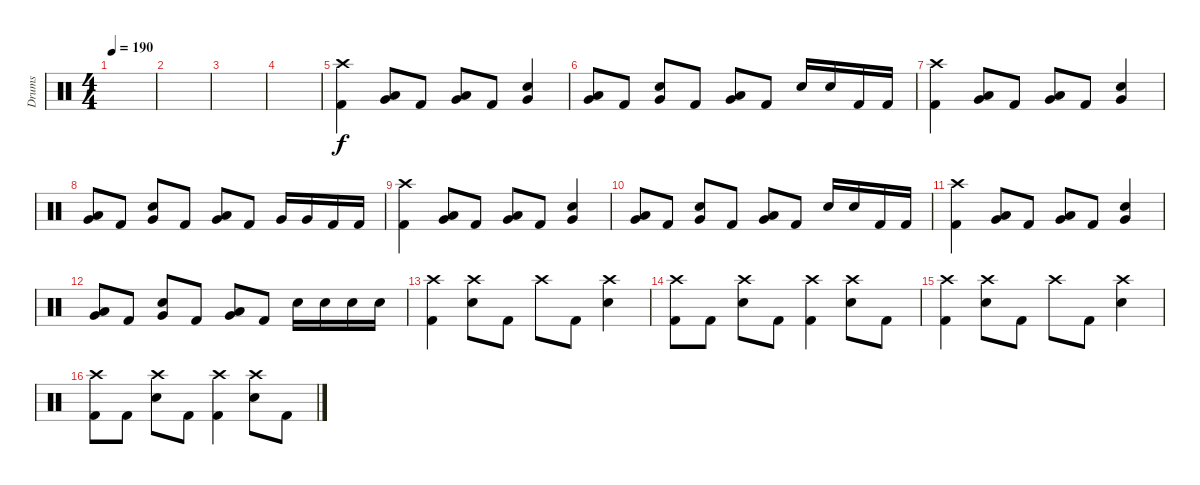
\track ("Drums" "Drums") {instrument percussion}
\staff {score}
\articulation defaults
\ts (4 4)
\tempo 190
\clef neutral
\ks c
|
|
|
|
("Crash high (hit)" "Kick (hit) 2").4{volume 16} ("Low Tom (hit)" "Very Low Tom (hit)").8 "Kick (hit) 2".8 ("Very Low Tom (hit)" "Low Floor Tom (hit)").8 "Kick (hit) 2".8 ("Very Low Tom (hit)" "Electric Snare (hit)").4 |
("Low Tom (hit)" "Very Low Tom (hit)").8 "Kick (hit) 2".8 ("Very Low Tom (hit)" "Electric Snare (hit)").8 "Kick (hit) 2".8 ("Low Tom (hit)" "Very Low Tom (hit)").8 "Kick (hit) 2".8 "Electric Snare (hit)".16 "Electric Snare (hit)".16 "Kick (hit) 2".16 "Kick (hit) 2".16 |
("Crash high (hit)" "Kick (hit) 2").4 ("Low Tom (hit)" "Very Low Tom (hit)").8 "Kick (hit) 2".8 ("Very Low Tom (hit)" "Low Floor Tom (hit)").8 "Kick (hit) 2".8 ("Very Low Tom (hit)" "Electric Snare (hit)").4 |
("Low Tom (hit)" "Very Low Tom (hit)").8 "Kick (hit) 2".8 ("Very Low Tom (hit)" "Electric Snare (hit)").8 "Kick (hit) 2".8 ("Low Tom (hit)" "Very Low Tom (hit)").8 "Kick (hit) 2".8 "Very Low Tom (hit)".16 "Very Low Tom (hit)".16 "Kick (hit) 2".16 "Kick (hit) 2".16 |
("Crash high (hit)" "Kick (hit) 2").4 ("Low Tom (hit)" "Very Low Tom (hit)").8 "Kick (hit) 2".8 ("Very Low Tom (hit)" "Low Floor Tom (hit)").8 "Kick (hit) 2".8 ("Very Low Tom (hit)" "Electric Snare (hit)").4 |
("Low Tom (hit)" "Very Low Tom (hit)").8 "Kick (hit) 2".8 ("Very Low Tom (hit)" "Electric Snare (hit)").8 "Kick (hit) 2".8 ("Low Tom (hit)" "Very Low Tom (hit)").8 "Kick (hit) 2".8 "Electric Snare (hit)".16 "Electric Snare (hit)".16 "Kick (hit) 2".16 "Kick (hit) 2".16 |
("Crash high (hit)" "Kick (hit) 2").4 ("Low Tom (hit)" "Very Low Tom (hit)").8 "Kick (hit) 2".8 ("Very Low Tom (hit)" "Low Floor Tom (hit)").8 "Kick (hit) 2".8 ("Very Low Tom (hit)" "Electric Snare (hit)").4 |
("Low Tom (hit)" "Very Low Tom (hit)").8 "Kick (hit) 2".8 ("Very Low Tom (hit)" "Electric Snare (hit)").8 "Kick (hit) 2".8 ("Low Tom (hit)" "Very Low Tom (hit)").8 "Kick (hit) 2".8 "Electric Snare (hit)".16 "Electric Snare (hit)".16 "Electric Snare (hit)".16 "Electric Snare (hit)".16 |
("Crash high (hit)" "Kick (hit) 2").4 ("Crash high (hit)" "Electric Snare (hit)").8 "Kick (hit) 2".8 "Crash high (hit)".8 "Kick (hit) 2".8 ("Crash high (hit)" "Electric Snare (hit)").4 |
("Crash high (hit)" "Kick (hit) 2").8 "Kick (hit) 2".8 ("Crash high (hit)" "Electric Snare (hit)").8 "Kick (hit) 2".8 ("Crash high (hit)" "Kick (hit) 2").4 ("Crash high (hit)" "Electric Snare (hit)").8 "Kick (hit) 2".8 |
("Crash high (hit)" "Kick (hit) 2").4 ("Crash high (hit)" "Electric Snare (hit)").8 "Kick (hit) 2".8 "Crash high (hit)".8 "Kick (hit) 2".8 ("Crash high (hit)" "Electric Snare (hit)").4 |
("Crash high (hit)" "Kick (hit) 2").8 "Kick (hit) 2".8 ("Crash high (hit)" "Electric Snare (hit)").8 "Kick (hit) 2".8 ("Crash high (hit)" "Kick (hit) 2").4 ("Crash high (hit)" "Electric Snare (hit)").8 "Kick (hit) 2".8
